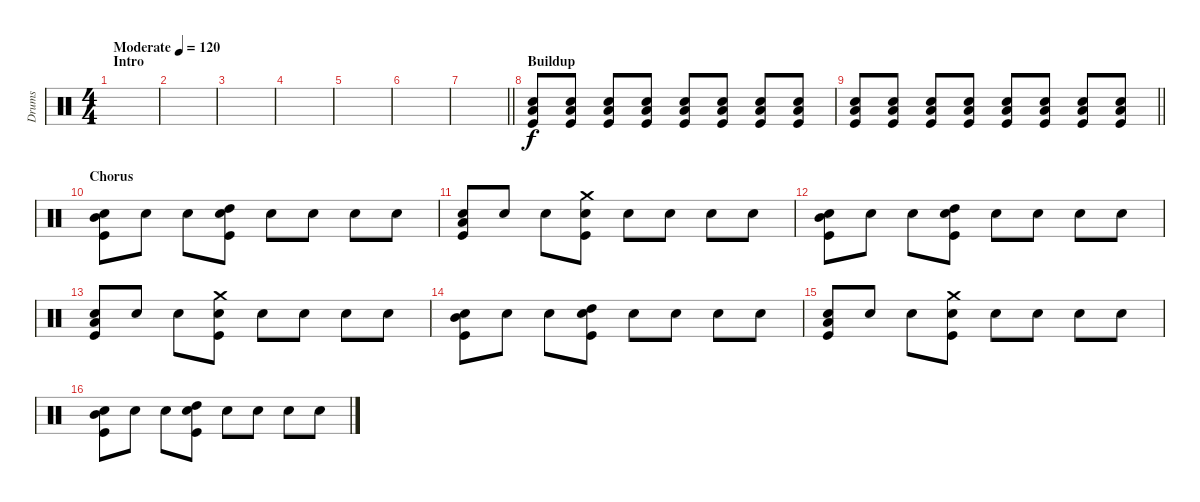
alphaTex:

\track ("Drums" "Drums") {instrument percussion}
\staff {score}
\articulation defaults
\ts (4 4)
\section ("" "Intro")
\tempo (120 "Moderate")
\clef neutral
\ks c
|
|
|
|
|
|
\barLineRight lightlight
|
\section ("" "Buildup")
("Snare (hit) 2" "Low Floor Tom (hit)" "Kick (hit)").8 ("Snare (hit) 2" "Low Floor Tom (hit)" "Kick (hit)").8 ("Snare (hit) 2" "Low Floor Tom (hit)" "Kick (hit)").8 ("Snare (hit) 2" "Low Floor Tom (hit)" "Kick (hit)").8 ("Snare (hit) 2" "Low Floor Tom (hit)" "Kick (hit)").8 ("Snare (hit) 2" "Low Floor Tom (hit)" "Kick (hit)").8 ("Snare (hit) 2" "Low Floor Tom (hit)" "Kick (hit)").8 ("Snare (hit) 2" "Low Floor Tom (hit)" "Kick (hit)").8 |
\barLineRight lightlight
("Snare (hit) 2" "Low Floor Tom (hit)" "Kick (hit)").8 ("Snare (hit) 2" "Low Floor Tom (hit)" "Kick (hit)").8 ("Snare (hit) 2" "Low Floor Tom (hit)" "Kick (hit)").8 ("Snare (hit) 2" "Low Floor Tom (hit)" "Kick (hit)").8 ("Snare (hit) 2" "Low Floor Tom (hit)" "Kick (hit)").8 ("Snare (hit) 2" "Low Floor Tom (hit)" "Kick (hit)").8 ("Snare (hit) 2" "Low Floor Tom (hit)" "Kick (hit)").8 ("Snare (hit) 2" "Low Floor Tom (hit)" "Kick (hit)").8 |
\section ("" "Chorus")
("Snare (hit) 2" "Mid Tom (hit)" "Kick (hit)").8 "Snare (hit) 2".8 "Snare (hit) 2".8 ("Snare (hit) 2" "High Tom (hit)" "Kick (hit)").8 "Snare (hit) 2".8 "Snare (hit) 2".8 "Snare (hit) 2".8 "Snare (hit) 2".8 |
("Snare (hit) 2" "Low Floor Tom (hit)" "Kick (hit)").8 "Snare (hit) 2".8 "Snare (hit) 2".8 ("Snare (hit) 2" "Crash medium (hit)" "Kick (hit)").8 "Snare (hit) 2".8 "Snare (hit) 2".8 "Snare (hit) 2".8 "Snare (hit) 2".8 |
("Snare (hit) 2" "Mid Tom (hit)" "Kick (hit)").8 "Snare (hit) 2".8 "Snare (hit) 2".8 ("Snare (hit) 2" "High Tom (hit)" "Kick (hit)").8 "Snare (hit) 2".8 "Snare (hit) 2".8 "Snare (hit) 2".8 "Snare (hit) 2".8 |
("Snare (hit) 2" "Low Floor Tom (hit)" "Kick (hit)").8 "Snare (hit) 2".8 "Snare (hit) 2".8 ("Snare (hit) 2" "Crash medium (hit)" "Kick (hit)").8 "Snare (hit) 2".8 "Snare (hit) 2".8 "Snare (hit) 2".8 "Snare (hit) 2".8 |
("Snare (hit) 2" "Mid Tom (hit)" "Kick (hit)").8 "Snare (hit) 2".8 "Snare (hit) 2".8 ("Snare (hit) 2" "High Tom (hit)" "Kick (hit)").8 "Snare (hit) 2".8 "Snare (hit) 2".8 "Snare (hit) 2".8 "Snare (hit) 2".8 |
("Snare (hit) 2" "Low Floor Tom (hit)" "Kick (hit)").8 "Snare (hit) 2".8 "Snare (hit) 2".8 ("Snare (hit) 2" "Crash medium (hit)" "Kick (hit)").8 "Snare (hit) 2".8 "Snare (hit) 2".8 "Snare (hit) 2".8 "Snare (hit) 2".8 |
("Snare (hit) 2" "Mid Tom (hit)" "Kick (hit)").8 "Snare (hit) 2".8 "Snare (hit) 2".8 ("Snare (hit) 2" "High Tom (hit)" "Kick (hit)").8 "Snare (hit) 2".8 "Snare (hit) 2".8 "Snare (hit) 2".8 "Snare (hit) 2".8
